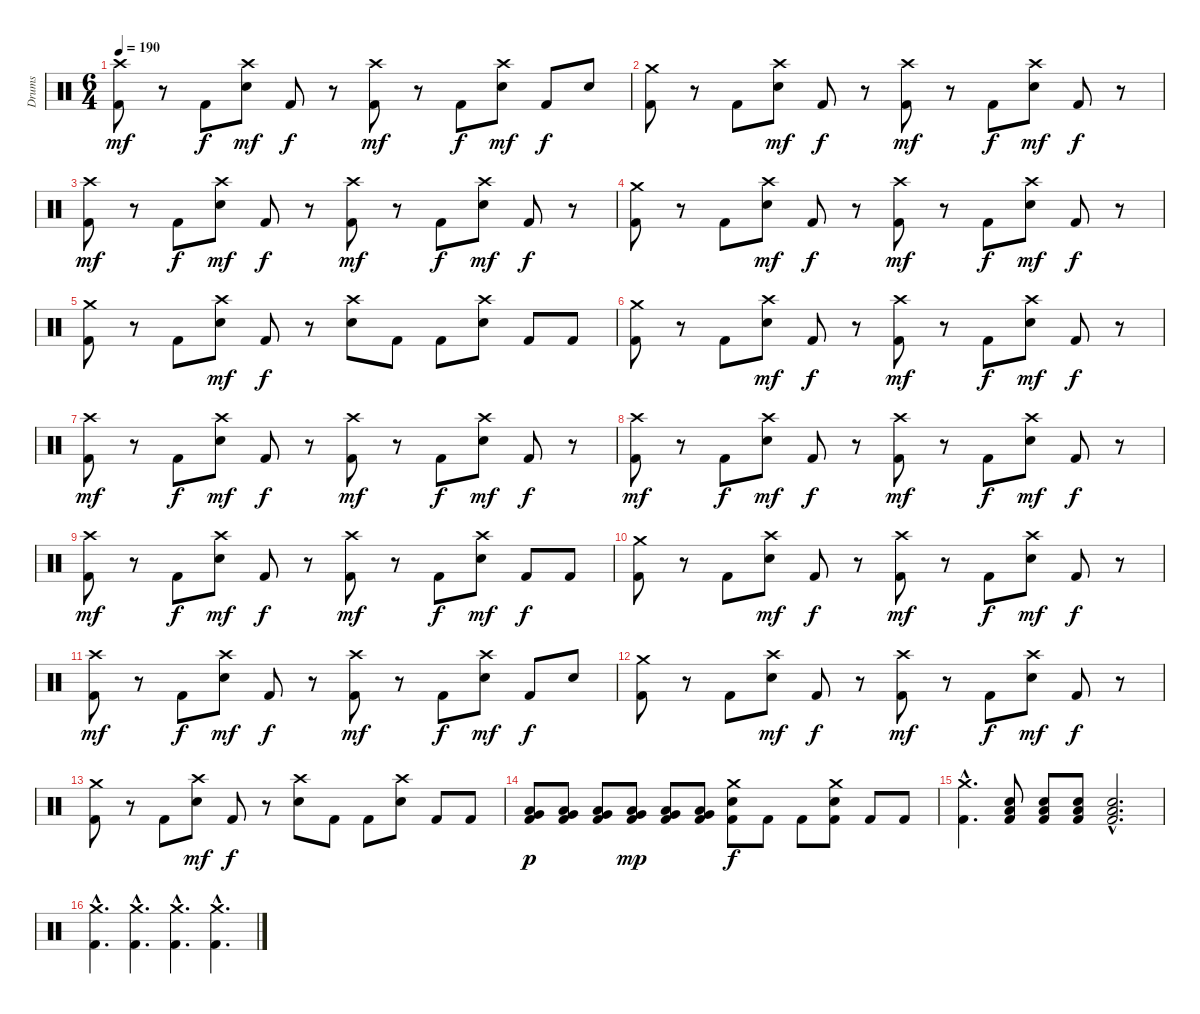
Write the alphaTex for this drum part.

\track ("Drums" "Drums") {instrument percussion}
\staff {score}
\articulation defaults
\ts (6 4)
\tempo 190
\clef neutral
\ks c
("Crash high (hit)" "Kick (hit) 2").8{dy mf} r.8 "Kick (hit) 2".8{dy f} ("Crash high (hit)" "Snare (hit) 2").8{dy mf} "Kick (hit) 2".8{dy f} r.8 ("Crash high (hit)" "Kick (hit) 2").8{dy mf} r.8 "Kick (hit) 2".8{dy f} ("Crash high (hit)" "Snare (hit) 2").8{dy mf} "Kick (hit) 2".8{dy f} "Snare (hit) 2".8 |
("Crash medium (hit)" "Kick (hit) 2").8 r.8 "Kick (hit) 2".8 ("Crash high (hit)" "Snare (hit) 2").8{dy mf} "Kick (hit) 2".8{dy f} r.8 ("Crash high (hit)" "Kick (hit) 2").8{dy mf} r.8 "Kick (hit) 2".8{dy f} ("Crash high (hit)" "Snare (hit) 2").8{dy mf} "Kick (hit) 2".8{dy f} r.8 |
("Crash high (hit)" "Kick (hit) 2").8{dy mf} r.8 "Kick (hit) 2".8{dy f} ("Crash high (hit)" "Snare (hit) 2").8{dy mf} "Kick (hit) 2".8{dy f} r.8 ("Crash high (hit)" "Kick (hit) 2").8{dy mf} r.8 "Kick (hit) 2".8{dy f} ("Crash high (hit)" "Snare (hit) 2").8{dy mf} "Kick (hit) 2".8{dy f} r.8 |
("Crash medium (hit)" "Kick (hit) 2").8 r.8 "Kick (hit) 2".8 ("Crash high (hit)" "Snare (hit) 2").8{dy mf} "Kick (hit) 2".8{dy f} r.8 ("Crash high (hit)" "Kick (hit) 2").8{dy mf} r.8 "Kick (hit) 2".8{dy f} ("Crash high (hit)" "Snare (hit) 2").8{dy mf} "Kick (hit) 2".8{dy f} r.8 |
("Crash medium (hit)" "Kick (hit) 2").8 r.8 "Kick (hit) 2".8 ("Crash high (hit)" "Snare (hit) 2").8{dy mf} "Kick (hit) 2".8{dy f} r.8 ("Crash high (hit)" "Snare (hit) 2").8 "Kick (hit) 2".8 "Kick (hit) 2".8 ("Crash high (hit)" "Snare (hit) 2").8 "Kick (hit) 2".8 "Kick (hit) 2".8 |
("Crash medium (hit)" "Kick (hit) 2").8 r.8 "Kick (hit) 2".8 ("Crash high (hit)" "Snare (hit) 2").8{dy mf} "Kick (hit) 2".8{dy f} r.8 ("Crash high (hit)" "Kick (hit) 2").8{dy mf} r.8 "Kick (hit) 2".8{dy f} ("Crash high (hit)" "Snare (hit) 2").8{dy mf} "Kick (hit) 2".8{dy f} r.8 |
("Crash high (hit)" "Kick (hit) 2").8{dy mf} r.8 "Kick (hit) 2".8{dy f} ("Crash high (hit)" "Snare (hit) 2").8{dy mf} "Kick (hit) 2".8{dy f} r.8 ("Crash high (hit)" "Kick (hit) 2").8{dy mf} r.8 "Kick (hit) 2".8{dy f} ("Crash high (hit)" "Snare (hit) 2").8{dy mf} "Kick (hit) 2".8{dy f} r.8 |
("Crash high (hit)" "Kick (hit) 2").8{dy mf} r.8 "Kick (hit) 2".8{dy f} ("Crash high (hit)" "Snare (hit) 2").8{dy mf} "Kick (hit) 2".8{dy f} r.8 ("Crash high (hit)" "Kick (hit) 2").8{dy mf} r.8 "Kick (hit) 2".8{dy f} ("Crash high (hit)" "Snare (hit) 2").8{dy mf} "Kick (hit) 2".8{dy f} r.8 |
("Crash high (hit)" "Kick (hit) 2").8{dy mf} r.8 "Kick (hit) 2".8{dy f} ("Crash high (hit)" "Snare (hit) 2").8{dy mf} "Kick (hit) 2".8{dy f} r.8 ("Crash high (hit)" "Kick (hit) 2").8{dy mf} r.8 "Kick (hit) 2".8{dy f} ("Crash high (hit)" "Snare (hit) 2").8{dy mf} "Kick (hit) 2".8{dy f} "Kick (hit) 2".8 |
("Crash medium (hit)" "Kick (hit) 2").8 r.8 "Kick (hit) 2".8 ("Crash high (hit)" "Snare (hit) 2").8{dy mf} "Kick (hit) 2".8{dy f} r.8 ("Crash high (hit)" "Kick (hit) 2").8{dy mf} r.8 "Kick (hit) 2".8{dy f} ("Crash high (hit)" "Snare (hit) 2").8{dy mf} "Kick (hit) 2".8{dy f} r.8 |
("Crash high (hit)" "Kick (hit) 2").8{dy mf} r.8 "Kick (hit) 2".8{dy f} ("Crash high (hit)" "Snare (hit) 2").8{dy mf} "Kick (hit) 2".8{dy f} r.8 ("Crash high (hit)" "Kick (hit) 2").8{dy mf} r.8 "Kick (hit) 2".8{dy f} ("Crash high (hit)" "Snare (hit) 2").8{dy mf} "Kick (hit) 2".8{dy f} "Snare (hit) 2".8 |
("Crash medium (hit)" "Kick (hit) 2").8 r.8 "Kick (hit) 2".8 ("Crash high (hit)" "Snare (hit) 2").8{dy mf} "Kick (hit) 2".8{dy f} r.8 ("Crash high (hit)" "Kick (hit) 2").8{dy mf} r.8 "Kick (hit) 2".8{dy f} ("Crash high (hit)" "Snare (hit) 2").8{dy mf} "Kick (hit) 2".8{dy f} r.8 |
("Crash medium (hit)" "Kick (hit) 2").8 r.8 "Kick (hit) 2".8 ("Crash high (hit)" "Snare (hit) 2").8{dy mf} "Kick (hit) 2".8{dy f} r.8 ("Crash high (hit)" "Snare (hit) 2").8 "Kick (hit) 2".8 "Kick (hit) 2".8 ("Crash high (hit)" "Snare (hit) 2").8 "Kick (hit) 2".8 "Kick (hit) 2".8 |
("Very Low Tom (hit)" "Low Floor Tom (hit)" "Kick (hit) 2").8{dy p} ("Very Low Tom (hit)" "Low Floor Tom (hit)" "Kick (hit) 2").8 ("Very Low Tom (hit)" "Low Floor Tom (hit)" "Kick (hit) 2").8 ("Very Low Tom (hit)" "Low Floor Tom (hit)" "Kick (hit) 2").8{dy mp} ("Very Low Tom (hit)" "Low Floor Tom (hit)" "Kick (hit) 2").8 ("Very Low Tom (hit)" "Low Floor Tom (hit)" "Kick (hit) 2").8 ("Crash medium (hit)" "Snare (hit) 2" "Kick (hit) 2").8{dy f} "Kick (hit) 2".8 "Kick (hit) 2".8 ("Crash medium (hit)" "Snare (hit) 2" "Kick (hit) 2").8 "Kick (hit) 2".8 "Kick (hit) 2".8 |
("Crash medium (hit)"{hac} "Kick (hit) 2"{hac}).4{d} ("Low Floor Tom (hit)" "Snare (hit) 2" "Kick (hit) 2").8 ("Low Floor Tom (hit)" "Snare (hit) 2" "Kick (hit) 2").8 ("Low Floor Tom (hit)" "Snare (hit) 2" "Kick (hit) 2").8 ("Low Floor Tom (hit)"{hac} "Snare (hit) 2"{hac} "Kick (hit) 2"{hac}).2{d} |
("Crash medium (hit)"{hac} "Kick (hit) 2"{hac}).4{d} ("Crash medium (hit)"{hac} "Kick (hit) 2"{hac}).4{d} ("Crash medium (hit)"{hac} "Kick (hit) 2"{hac}).4{d} ("Crash medium (hit)"{hac} "Kick (hit) 2"{hac}).4{d}
